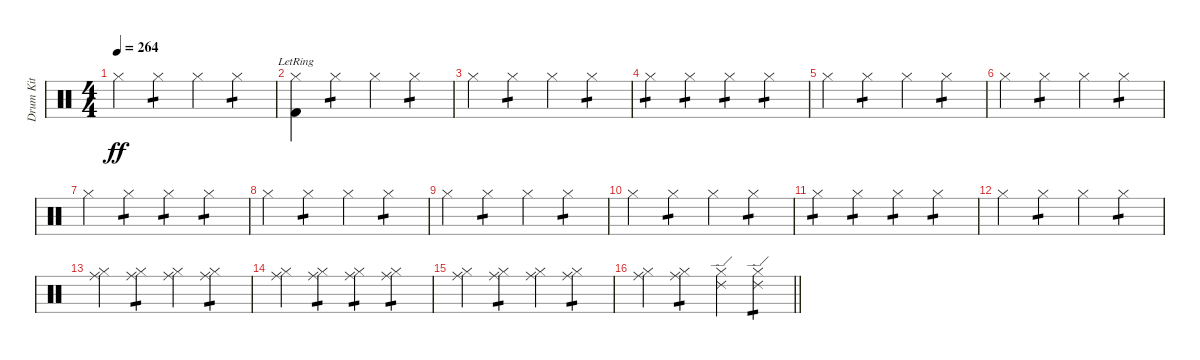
\track ("Drum Kit" "Drum Kit") {instrument percussion}
\staff {score}
\articulation defaults
\ts (4 4)
\tempo 264
\clef neutral
\ks c "Hi-Hat (closed)".4{dy ff} "Hi-Hat (closed)".4{tp 1} "Hi-Hat (closed)".4 "Hi-Hat (closed)".4{tp 1}
|
("Hi-Hat (closed)" "Kick (hit) 2"{lr}).4 "Hi-Hat (closed)".4{tp 1} "Hi-Hat (closed)".4 "Hi-Hat (closed)".4{tp 1} |
"Hi-Hat (closed)".4 "Hi-Hat (closed)".4{tp 1} "Hi-Hat (closed)".4 "Hi-Hat (closed)".4{tp 1} |
"Hi-Hat (closed)".4{tp 1} "Hi-Hat (closed)".4{tp 1} "Hi-Hat (closed)".4{tp 1} "Hi-Hat (closed)".4{tp 1} |
"Hi-Hat (closed)".4 "Hi-Hat (closed)".4{tp 1} "Hi-Hat (closed)".4 "Hi-Hat (closed)".4{tp 1} |
"Hi-Hat (closed)".4 "Hi-Hat (closed)".4{tp 1} "Hi-Hat (closed)".4 "Hi-Hat (closed)".4{tp 1} |
"Hi-Hat (closed)".4 "Hi-Hat (closed)".4{tp 1} "Hi-Hat (closed)".4{tp 1} "Hi-Hat (closed)".4{tp 1} |
"Hi-Hat (closed)".4 "Hi-Hat (closed)".4{tp 1} "Hi-Hat (closed)".4 "Hi-Hat (closed)".4{tp 1} |
"Hi-Hat (closed)".4 "Hi-Hat (closed)".4{tp 1} "Hi-Hat (closed)".4 "Hi-Hat (closed)".4{tp 1} |
"Hi-Hat (closed)".4 "Hi-Hat (closed)".4{tp 1} "Hi-Hat (closed)".4 "Hi-Hat (closed)".4{tp 1} |
"Hi-Hat (closed)".4{tp 1} "Hi-Hat (closed)".4{tp 1} "Hi-Hat (closed)".4{tp 1} "Hi-Hat (closed)".4{tp 1} |
"Hi-Hat (closed)".4 "Hi-Hat (closed)".4{tp 1} "Hi-Hat (closed)".4 "Hi-Hat (closed)".4{tp 1} |
("Hi-Hat (closed)" "Ride (middle)").4 ("Hi-Hat (closed)" "Ride (middle)").4{tp 1} ("Hi-Hat (closed)" "Ride (middle)").4 ("Hi-Hat (closed)" "Ride (middle)").4{tp 1} |
("Hi-Hat (closed)" "Ride (middle)").4 ("Hi-Hat (closed)" "Ride (middle)").4{tp 1} ("Hi-Hat (closed)" "Ride (middle)").4{tp 1} ("Hi-Hat (closed)" "Ride (middle)").4{tp 1} |
("Hi-Hat (closed)" "Ride (middle)").4 ("Hi-Hat (closed)" "Ride (middle)").4{tp 1} ("Hi-Hat (closed)" "Ride (middle)").4 ("Hi-Hat (closed)" "Ride (middle)").4{tp 1} |
\barLineRight lightlight
("Hi-Hat (closed)" "Ride (middle)").4 ("Hi-Hat (closed)" "Ride (middle)").4{tp 1} ("Hi-Hat (closed)" "Ride (edge) 2").4 ("Hi-Hat (closed)" "Ride (edge) 2").4{tp 1}
